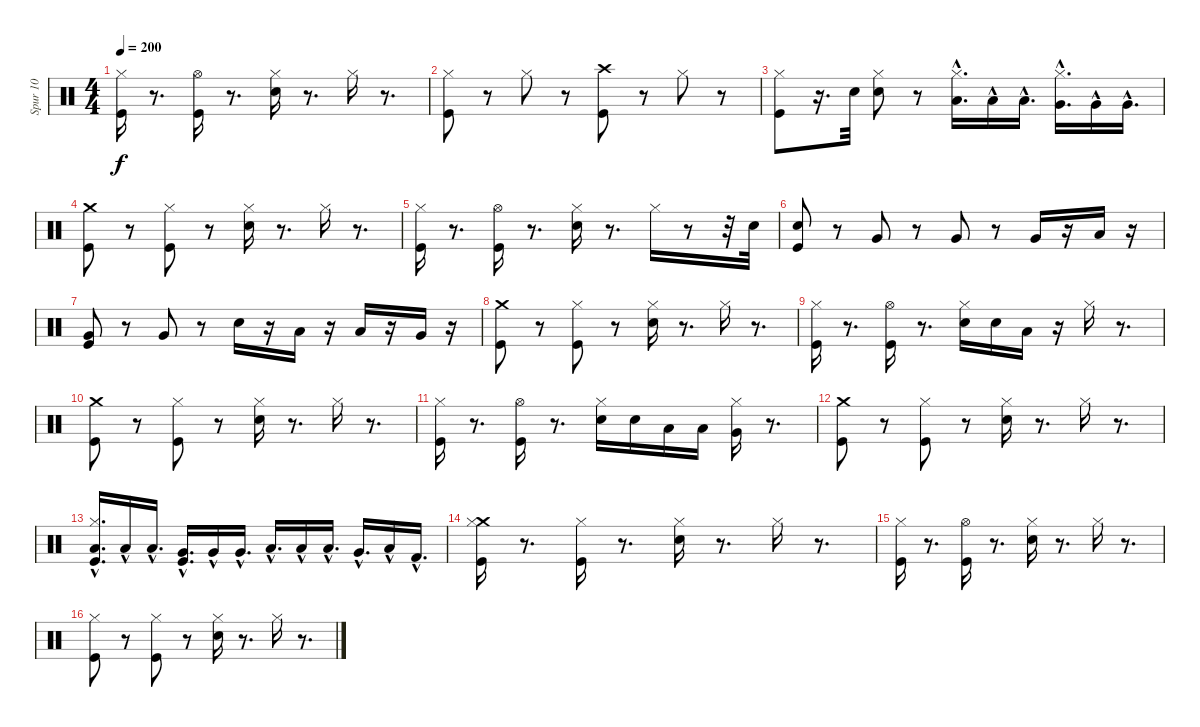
\track ("Spur 10" "Spur 10") {instrument percussion}
\staff {score}
\articulation defaults
\ts (4 4)
\tempo 200
\clef neutral
\ks c
("Kick (hit)" "Hi-Hat (closed)").16{dy f} r.8{d} ("Kick (hit)" "Hi-Hat (open)").16 r.8{d} ("Snare (hit) 2" "Hi-Hat (closed)").16 r.8{d} "Hi-Hat (closed)".16 r.8{d} |
("Hi-Hat (closed)" "Kick (hit)").8 r.8 "Hi-Hat (closed)".8 r.8 ("Kick (hit)" "Crash high (hit)").8 r.8 "Hi-Hat (closed)".8 r.8 |
("Kick (hit)" "Hi-Hat (closed)").8 r.16{d} "Snare (hit) 2".32 ("Snare (hit) 2" "Hi-Hat (closed)").8 r.8 ("Low Floor Tom (hit)"{hac} "Hi-Hat (closed)").16{d} "Low Floor Tom (hit)"{hac}.16 "Low Floor Tom (hit)"{hac}.16{d} ("Very Low Tom (hit)"{hac} "Hi-Hat (closed)").16{d} "Very Low Tom (hit)"{hac}.16 "Very Low Tom (hit)"{hac}.16{d} |
("Crash medium (hit)" "Kick (hit)").8 r.8 ("Kick (hit)" "Hi-Hat (closed)").8 r.8 ("Snare (hit) 2" "Hi-Hat (closed)").16 r.8{d} "Hi-Hat (closed)".16 r.8{d} |
("Kick (hit)" "Hi-Hat (closed)").16 r.8{d} ("Kick (hit)" "Hi-Hat (open)").16 r.8{d} ("Snare (hit) 2" "Hi-Hat (closed)").16 r.8{d} "Hi-Hat (closed)".16 r.8 r.32 "Snare (hit) 2".32 |
("Kick (hit)" "Snare (hit) 2").8 r.8 "Very Low Tom (hit)".8 r.8 "Very Low Tom (hit)".8 r.8 "Very Low Tom (hit)".16 r.16 "Low Tom (hit)".16 r.16 |
("Very Low Tom (hit)" "Kick (hit)").8 r.8 "Very Low Tom (hit)".8 r.8 "Snare (hit) 2".16 r.16 "Low Tom (hit)".16 r.16 "Low Tom (hit)".16 r.16 "Very Low Tom (hit)".16 r.16 |
("Crash medium (hit)" "Kick (hit)").8 r.8 ("Kick (hit)" "Hi-Hat (closed)").8 r.8 ("Snare (hit) 2" "Hi-Hat (closed)").16 r.8{d} "Hi-Hat (closed)".16 r.8{d} |
("Kick (hit)" "Hi-Hat (closed)").16 r.8{d} ("Kick (hit)" "Hi-Hat (open)").16 r.8{d} ("Snare (hit) 2" "Hi-Hat (closed)").16 "Snare (hit) 2".16 "Low Tom (hit)".16 r.16 "Hi-Hat (closed)".16 r.8{d} |
("Crash medium (hit)" "Kick (hit)").8 r.8 ("Kick (hit)" "Hi-Hat (closed)").8 r.8 ("Snare (hit) 2" "Hi-Hat (closed)").16 r.8{d} "Hi-Hat (closed)".16 r.8{d} |
("Kick (hit)" "Hi-Hat (closed)").16 r.8{d} ("Kick (hit)" "Hi-Hat (open)").16 r.8{d} ("Snare (hit) 2" "Hi-Hat (closed)").16 "Snare (hit) 2".16 "Low Tom (hit)".16 "Low Tom (hit)".16 ("Very Low Tom (hit)" "Hi-Hat (closed)").16 r.8{d} |
("Crash medium (hit)" "Kick (hit)").8 r.8 ("Kick (hit)" "Hi-Hat (closed)").8 r.8 ("Snare (hit) 2" "Hi-Hat (closed)").16 r.8{d} "Hi-Hat (closed)".16 r.8{d} |
("Low Floor Tom (hit)"{hac} "Kick (hit)" "Hi-Hat (closed)").16{d} "Low Floor Tom (hit)"{hac}.16 "Low Floor Tom (hit)"{hac}.16{d} ("Very Low Tom (hit)"{hac} "Kick (hit)").16{d} "Very Low Tom (hit)"{hac}.16 "Very Low Tom (hit)"{hac}.16{d} "Low Tom (hit)"{hac}.16{d} "Low Tom (hit)"{hac}.16 "Low Tom (hit)"{hac}.16{d} "Very Low Tom (hit)"{hac}.16{d} "Low Floor Tom (hit)"{hac}.16 "Kick (hit) 2"{hac}.16{d} |
("Kick (hit)" "Crash medium (hit)" "Hi-Hat (closed)").16 r.8{d} ("Kick (hit)" "Hi-Hat (closed)").16 r.8{d} ("Snare (hit) 2" "Hi-Hat (closed)").16 r.8{d} "Hi-Hat (closed)".16 r.8{d} |
("Kick (hit)" "Hi-Hat (closed)").16 r.8{d} ("Kick (hit)" "Hi-Hat (open)").16 r.8{d} ("Snare (hit) 2" "Hi-Hat (closed)").16 r.8{d} "Hi-Hat (closed)".16 r.8{d} |
("Hi-Hat (closed)" "Kick (hit)").8 r.8 ("Kick (hit)" "Hi-Hat (closed)").8 r.8 ("Snare (hit) 2" "Hi-Hat (closed)").16 r.8{d} "Hi-Hat (closed)".16 r.8{d}
